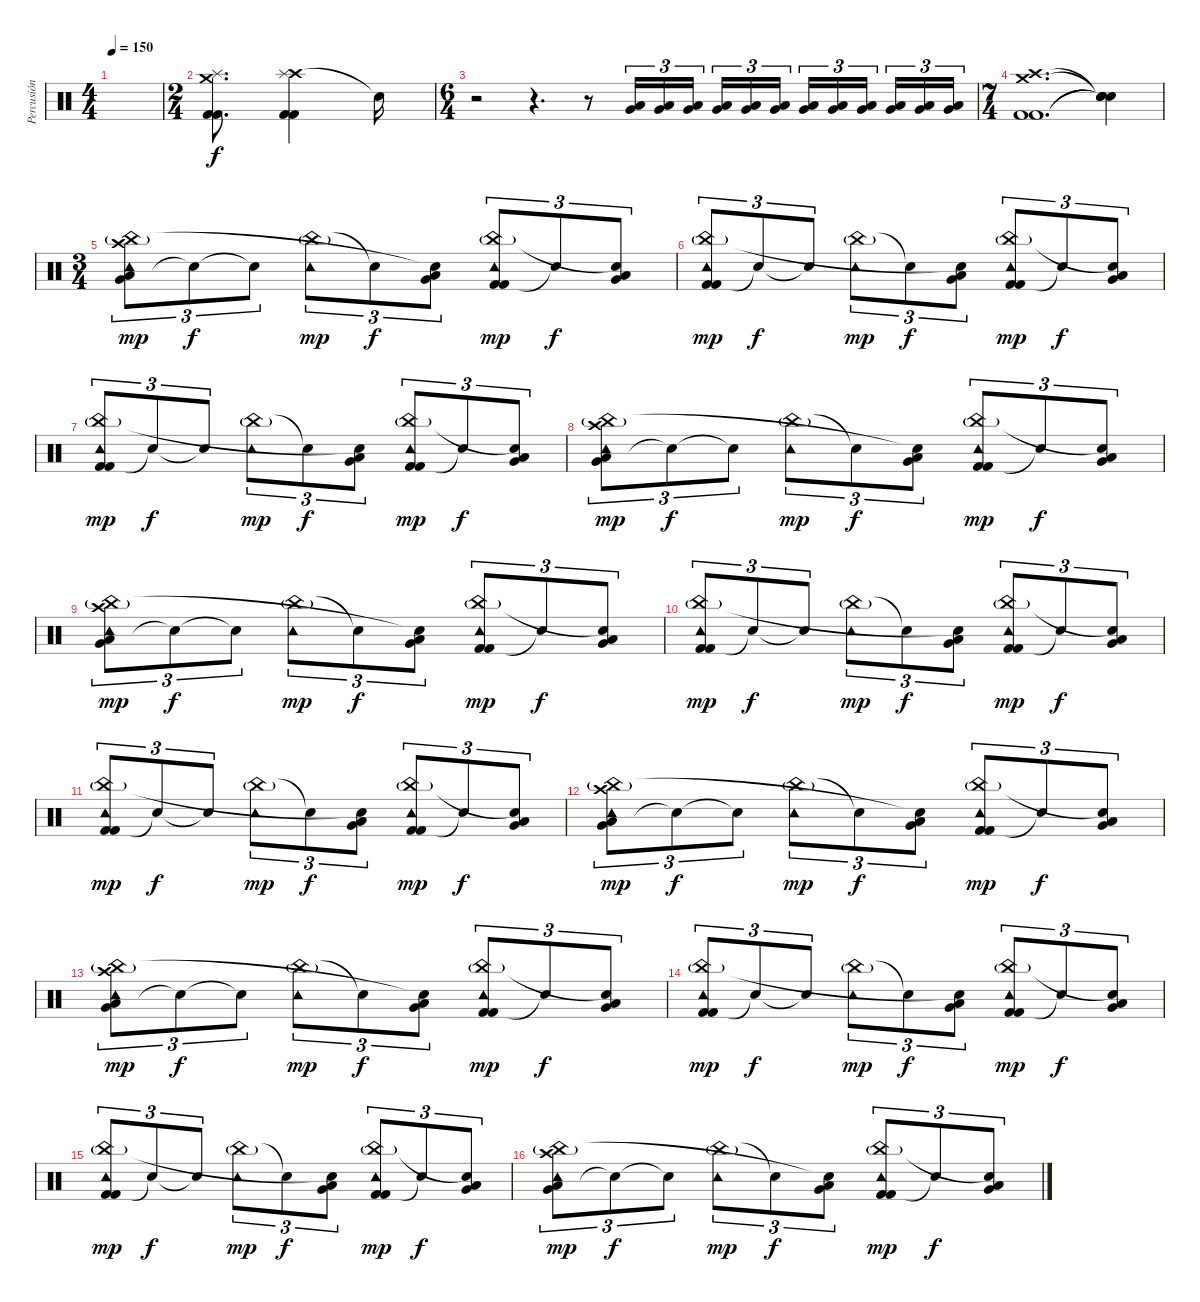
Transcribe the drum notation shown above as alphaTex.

\track ("Percusión" "Percusión") {instrument percussion}
\staff {score}
\articulation defaults
\ts (4 4)
\tempo 150
\clef neutral
\ks c
|
\ts (2 4)
("Crash medium (hit)" "Splash (hit)" "Kick (hit) 2" "Kick (hit) 2").8{d} ("Crash high (hit)" "Splash (hit)" "Kick (hit) 2" "Kick (hit) 2").4 "Snare (hit)"{t}.16 |
\ts (6 4)
r.2 r.4{d} r.8{volume 5} ("Low Floor Tom (hit)" "Very Low Tom (hit)").16{tu (3 2) volume 13} ("Very Low Tom (hit)" "Low Floor Tom (hit)").16{tu (3 2)} ("Very Low Tom (hit)" "Low Floor Tom (hit)").16{tu (3 2) beam splitsecondary} ("Low Floor Tom (hit)" "Very Low Tom (hit)").16{tu (3 2)} ("Low Floor Tom (hit)" "Very Low Tom (hit)").16{tu (3 2)} ("Low Floor Tom (hit)" "Very Low Tom (hit)").16{tu (3 2) beam splitsecondary} ("Low Floor Tom (hit)" "Very Low Tom (hit)").16{tu (3 2)} ("Low Floor Tom (hit)" "Very Low Tom (hit)").16{tu (3 2)} ("Low Floor Tom (hit)" "Very Low Tom (hit)").16{tu (3 2) beam splitsecondary} ("Low Floor Tom (hit)" "Very Low Tom (hit)").16{tu (3 2)} ("Low Floor Tom (hit)" "Very Low Tom (hit)").16{tu (3 2)} ("Low Floor Tom (hit)" "Very Low Tom (hit)").16{tu (3 2)} |
\ts (7 4)
("Crash medium (hit)" "Crash high (hit)" "Kick (hit) 2" "Kick (hit) 2").1{d} ("Snare (hit)"{t} "Snare (hit)"{t} "Snare (hit)"{t} "Snare (hit)"{t}).4 |
\ts (3 4)
("Low Floor Tom (hit)" "Very Low Tom (hit)" "China (hit)"{g} "Crash high (hit)" "Tambourine (hit)").8{tu (3 2) dy mp} "Snare (hit)"{t}.8{tu (3 2) dy f} "Snare (hit)"{t}.8{tu (3 2)} ("China (hit)"{g} "Tambourine (hit)").8{tu (3 2) dy mp} "Snare (hit)"{t}.8{tu (3 2) dy f} ("Low Floor Tom (hit)" "Very Low Tom (hit)" "Snare (hit)"{t}).8{tu (3 2)} ("Kick (hit) 2" "Kick (hit) 2" "China (hit)"{g} "Tambourine (hit)").8{tu (3 2) dy mp} "Snare (hit)"{t}.8{tu (3 2) dy f} ("Low Floor Tom (hit)" "Very Low Tom (hit)" "Snare (hit)"{t}).8{tu (3 2)} |
("Kick (hit) 2" "Kick (hit) 2" "China (hit)"{g} "Tambourine (hit)").8{tu (3 2) dy mp} "Snare (hit)"{t}.8{tu (3 2) dy f} "Snare (hit)"{t}.8{tu (3 2)} ("China (hit)"{g} "Tambourine (hit)").8{tu (3 2) dy mp} "Snare (hit)"{t}.8{tu (3 2) dy f} ("Low Floor Tom (hit)" "Very Low Tom (hit)" "Snare (hit)"{t}).8{tu (3 2)} ("Kick (hit) 2" "Kick (hit) 2" "China (hit)"{g} "Tambourine (hit)").8{tu (3 2) dy mp} "Snare (hit)"{t}.8{tu (3 2) dy f} ("Low Floor Tom (hit)" "Very Low Tom (hit)" "Snare (hit)"{t}).8{tu (3 2)} |
("Kick (hit) 2" "Kick (hit) 2" "China (hit)"{g} "Tambourine (hit)").8{tu (3 2) dy mp} "Snare (hit)"{t}.8{tu (3 2) dy f} "Snare (hit)"{t}.8{tu (3 2)} ("China (hit)"{g} "Tambourine (hit)").8{tu (3 2) dy mp} "Snare (hit)"{t}.8{tu (3 2) dy f} ("Low Floor Tom (hit)" "Very Low Tom (hit)" "Snare (hit)"{t}).8{tu (3 2)} ("Kick (hit) 2" "Kick (hit) 2" "China (hit)"{g} "Tambourine (hit)").8{tu (3 2) dy mp} "Snare (hit)"{t}.8{tu (3 2) dy f} ("Low Floor Tom (hit)" "Very Low Tom (hit)" "Snare (hit)"{t}).8{tu (3 2)} |
("Low Floor Tom (hit)" "Very Low Tom (hit)" "China (hit)"{g} "Crash high (hit)" "Tambourine (hit)").8{tu (3 2) dy mp} "Snare (hit)"{t}.8{tu (3 2) dy f} "Snare (hit)"{t}.8{tu (3 2)} ("China (hit)"{g} "Tambourine (hit)").8{tu (3 2) dy mp} "Snare (hit)"{t}.8{tu (3 2) dy f} ("Low Floor Tom (hit)" "Very Low Tom (hit)" "Snare (hit)"{t}).8{tu (3 2)} ("Kick (hit) 2" "Kick (hit) 2" "China (hit)"{g} "Tambourine (hit)").8{tu (3 2) dy mp} "Snare (hit)"{t}.8{tu (3 2) dy f} ("Low Floor Tom (hit)" "Very Low Tom (hit)" "Snare (hit)"{t}).8{tu (3 2)} |
("Low Floor Tom (hit)" "Very Low Tom (hit)" "China (hit)"{g} "Crash high (hit)" "Tambourine (hit)").8{tu (3 2) dy mp} "Snare (hit)"{t}.8{tu (3 2) dy f} "Snare (hit)"{t}.8{tu (3 2)} ("China (hit)"{g} "Tambourine (hit)").8{tu (3 2) dy mp} "Snare (hit)"{t}.8{tu (3 2) dy f} ("Low Floor Tom (hit)" "Very Low Tom (hit)" "Snare (hit)"{t}).8{tu (3 2)} ("Kick (hit) 2" "Kick (hit) 2" "China (hit)"{g} "Tambourine (hit)").8{tu (3 2) dy mp} "Snare (hit)"{t}.8{tu (3 2) dy f} ("Low Floor Tom (hit)" "Very Low Tom (hit)" "Snare (hit)"{t}).8{tu (3 2)} |
("Kick (hit) 2" "Kick (hit) 2" "China (hit)"{g} "Tambourine (hit)").8{tu (3 2) dy mp} "Snare (hit)"{t}.8{tu (3 2) dy f} "Snare (hit)"{t}.8{tu (3 2)} ("China (hit)"{g} "Tambourine (hit)").8{tu (3 2) dy mp} "Snare (hit)"{t}.8{tu (3 2) dy f} ("Low Floor Tom (hit)" "Very Low Tom (hit)" "Snare (hit)"{t}).8{tu (3 2)} ("Kick (hit) 2" "Kick (hit) 2" "China (hit)"{g} "Tambourine (hit)").8{tu (3 2) dy mp} "Snare (hit)"{t}.8{tu (3 2) dy f} ("Low Floor Tom (hit)" "Very Low Tom (hit)" "Snare (hit)"{t}).8{tu (3 2)} |
("Kick (hit) 2" "Kick (hit) 2" "China (hit)"{g} "Tambourine (hit)").8{tu (3 2) dy mp} "Snare (hit)"{t}.8{tu (3 2) dy f} "Snare (hit)"{t}.8{tu (3 2)} ("China (hit)"{g} "Tambourine (hit)").8{tu (3 2) dy mp} "Snare (hit)"{t}.8{tu (3 2) dy f} ("Low Floor Tom (hit)" "Very Low Tom (hit)" "Snare (hit)"{t}).8{tu (3 2)} ("Kick (hit) 2" "Kick (hit) 2" "China (hit)"{g} "Tambourine (hit)").8{tu (3 2) dy mp} "Snare (hit)"{t}.8{tu (3 2) dy f} ("Low Floor Tom (hit)" "Very Low Tom (hit)" "Snare (hit)"{t}).8{tu (3 2)} |
("Low Floor Tom (hit)" "Very Low Tom (hit)" "China (hit)"{g} "Crash high (hit)" "Tambourine (hit)").8{tu (3 2) dy mp} "Snare (hit)"{t}.8{tu (3 2) dy f} "Snare (hit)"{t}.8{tu (3 2)} ("China (hit)"{g} "Tambourine (hit)").8{tu (3 2) dy mp} "Snare (hit)"{t}.8{tu (3 2) dy f} ("Low Floor Tom (hit)" "Very Low Tom (hit)" "Snare (hit)"{t}).8{tu (3 2)} ("Kick (hit) 2" "Kick (hit) 2" "China (hit)"{g} "Tambourine (hit)").8{tu (3 2) dy mp} "Snare (hit)"{t}.8{tu (3 2) dy f} ("Low Floor Tom (hit)" "Very Low Tom (hit)" "Snare (hit)"{t}).8{tu (3 2)} |
("Low Floor Tom (hit)" "Very Low Tom (hit)" "China (hit)"{g} "Crash high (hit)" "Tambourine (hit)").8{tu (3 2) dy mp} "Snare (hit)"{t}.8{tu (3 2) dy f} "Snare (hit)"{t}.8{tu (3 2)} ("China (hit)"{g} "Tambourine (hit)").8{tu (3 2) dy mp} "Snare (hit)"{t}.8{tu (3 2) dy f} ("Low Floor Tom (hit)" "Very Low Tom (hit)" "Snare (hit)"{t}).8{tu (3 2)} ("Kick (hit) 2" "Kick (hit) 2" "China (hit)"{g} "Tambourine (hit)").8{tu (3 2) dy mp} "Snare (hit)"{t}.8{tu (3 2) dy f} ("Low Floor Tom (hit)" "Very Low Tom (hit)" "Snare (hit)"{t}).8{tu (3 2)} |
("Kick (hit) 2" "Kick (hit) 2" "China (hit)"{g} "Tambourine (hit)").8{tu (3 2) dy mp} "Snare (hit)"{t}.8{tu (3 2) dy f} "Snare (hit)"{t}.8{tu (3 2)} ("China (hit)"{g} "Tambourine (hit)").8{tu (3 2) dy mp} "Snare (hit)"{t}.8{tu (3 2) dy f} ("Low Floor Tom (hit)" "Very Low Tom (hit)" "Snare (hit)"{t}).8{tu (3 2)} ("Kick (hit) 2" "Kick (hit) 2" "China (hit)"{g} "Tambourine (hit)").8{tu (3 2) dy mp} "Snare (hit)"{t}.8{tu (3 2) dy f} ("Low Floor Tom (hit)" "Very Low Tom (hit)" "Snare (hit)"{t}).8{tu (3 2)} |
("Kick (hit) 2" "Kick (hit) 2" "China (hit)"{g} "Tambourine (hit)").8{tu (3 2) dy mp} "Snare (hit)"{t}.8{tu (3 2) dy f} "Snare (hit)"{t}.8{tu (3 2)} ("China (hit)"{g} "Tambourine (hit)").8{tu (3 2) dy mp} "Snare (hit)"{t}.8{tu (3 2) dy f} ("Low Floor Tom (hit)" "Very Low Tom (hit)" "Snare (hit)"{t}).8{tu (3 2)} ("Kick (hit) 2" "Kick (hit) 2" "China (hit)"{g} "Tambourine (hit)").8{tu (3 2) dy mp} "Snare (hit)"{t}.8{tu (3 2) dy f} ("Low Floor Tom (hit)" "Very Low Tom (hit)" "Snare (hit)"{t}).8{tu (3 2)} |
("Low Floor Tom (hit)" "Very Low Tom (hit)" "China (hit)"{g} "Crash high (hit)" "Tambourine (hit)").8{tu (3 2) dy mp} "Snare (hit)"{t}.8{tu (3 2) dy f} "Snare (hit)"{t}.8{tu (3 2)} ("China (hit)"{g} "Tambourine (hit)").8{tu (3 2) dy mp} "Snare (hit)"{t}.8{tu (3 2) dy f} ("Low Floor Tom (hit)" "Very Low Tom (hit)" "Snare (hit)"{t}).8{tu (3 2)} ("Kick (hit) 2" "Kick (hit) 2" "China (hit)"{g} "Tambourine (hit)").8{tu (3 2) dy mp} "Snare (hit)"{t}.8{tu (3 2) dy f} ("Low Floor Tom (hit)" "Very Low Tom (hit)" "Snare (hit)"{t}).8{tu (3 2)}
